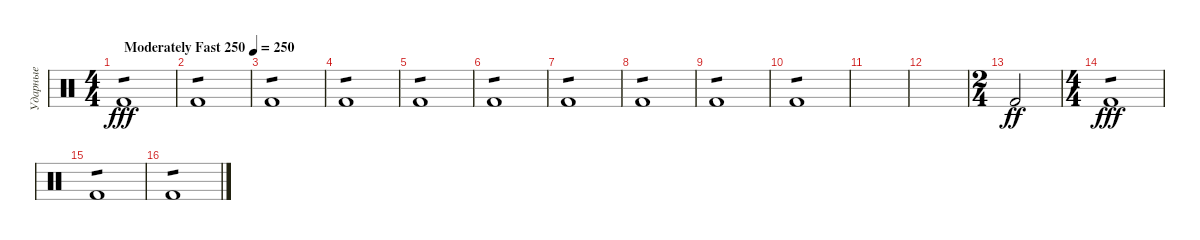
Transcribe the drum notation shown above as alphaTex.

\track ("Ударные" "Ударные") {instrument percussion}
\staff {score}
\articulation defaults
\ts (4 4)
\tempo (250 "Moderately Fast 250")
\clef neutral
\ks c "Kick (hit) 2".1{tp 1 dy fff}
|
"Kick (hit) 2".1{tp 1} |
"Kick (hit) 2".1{tp 1} |
"Kick (hit) 2".1{tp 1} |
"Kick (hit) 2".1{tp 1} |
"Kick (hit) 2".1{tp 1} |
"Kick (hit) 2".1{tp 1} |
"Kick (hit) 2".1{tp 1} |
"Kick (hit) 2".1{tp 1} |
"Kick (hit) 2".1{tp 1} |
|
|
\ts (2 4)
"Kick (hit) 2".2{dy ff} |
\ts (4 4)
"Kick (hit) 2".1{tp 1 dy fff} |
"Kick (hit) 2".1{tp 1} |
"Kick (hit) 2".1{tp 1}
